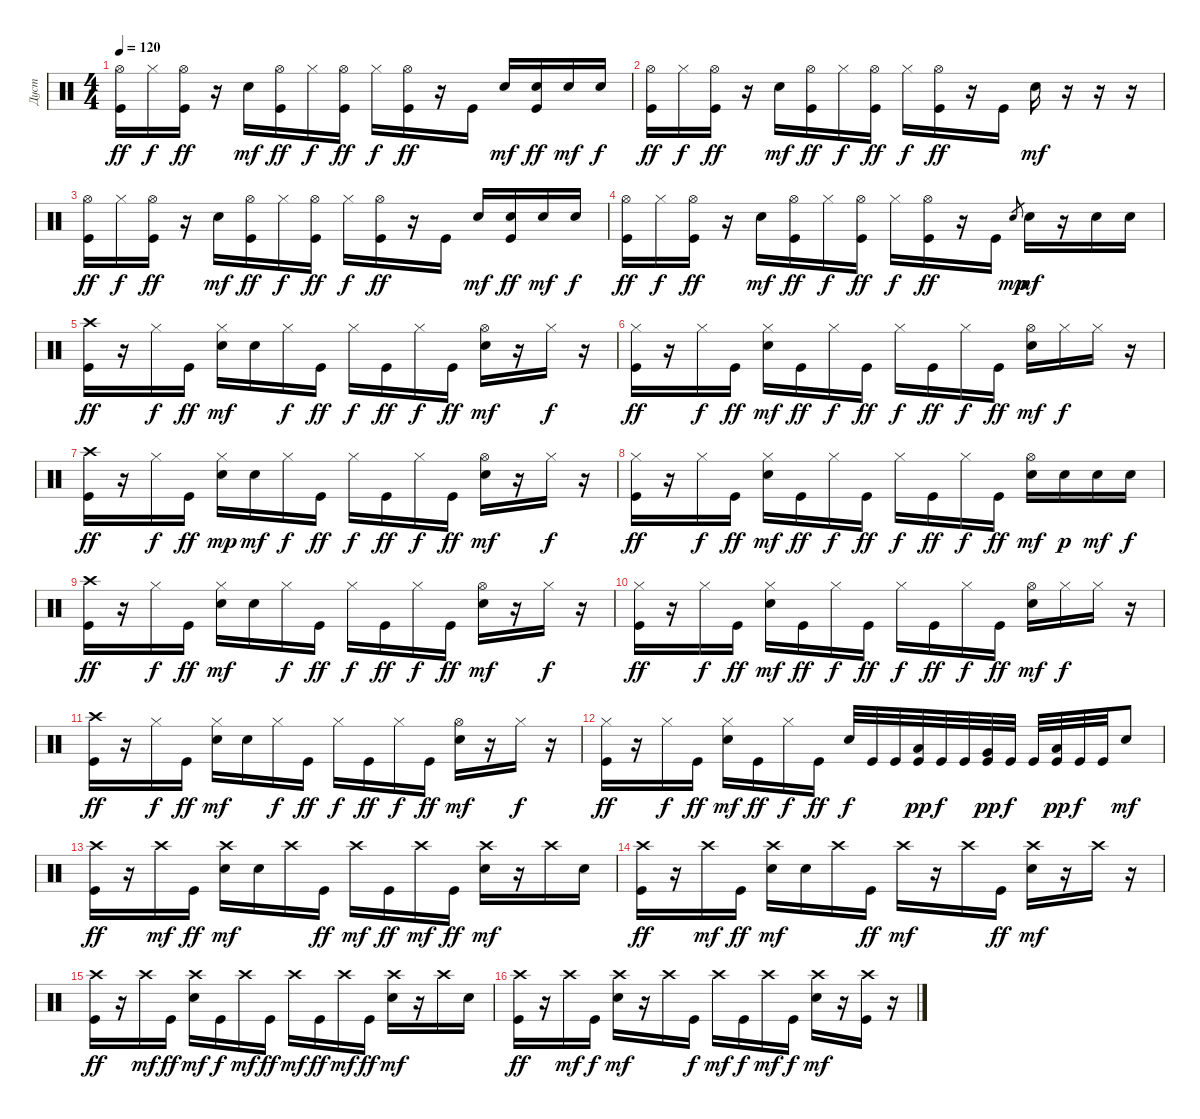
\track ("Дуст" "Дуст") {instrument percussion}
\staff {score}
\articulation defaults
\ts (4 4)
\tempo 120
\clef neutral
\ks c
("Hi-Hat (open)" "Kick (hit)").16{dy ff} "Hi-Hat (closed)".16{dy f} ("Hi-Hat (open)" "Kick (hit)").16{dy ff} r.16 "Metronome (bell)".16{dy mf} ("Hi-Hat (open)" "Kick (hit)").16{dy ff} "Hi-Hat (closed)".16{dy f} ("Hi-Hat (open)" "Kick (hit)").16{dy ff} "Hi-Hat (closed)".16{dy f} ("Hi-Hat (open)" "Kick (hit)").16{dy ff} r.16 "Kick (hit)".16 "Metronome (bell)".16{dy mf} ("Metronome (bell)" "Kick (hit)").16{dy ff} "Metronome (bell)".16{dy mf} "Metronome (bell)".16{dy f} |
("Hi-Hat (open)" "Kick (hit)").16{dy ff} "Hi-Hat (closed)".16{dy f} ("Hi-Hat (open)" "Kick (hit)").16{dy ff} r.16 "Metronome (bell)".16{dy mf} ("Hi-Hat (open)" "Kick (hit)").16{dy ff} "Hi-Hat (closed)".16{dy f} ("Hi-Hat (open)" "Kick (hit)").16{dy ff} "Hi-Hat (closed)".16{dy f} ("Hi-Hat (open)" "Kick (hit)").16{dy ff} r.16 "Kick (hit)".16 "Metronome (bell)".16{dy mf} r.16 r.16 r.16 |
("Hi-Hat (open)" "Kick (hit)").16{dy ff} "Hi-Hat (closed)".16{dy f} ("Hi-Hat (open)" "Kick (hit)").16{dy ff} r.16 "Metronome (bell)".16{dy mf} ("Hi-Hat (open)" "Kick (hit)").16{dy ff} "Hi-Hat (closed)".16{dy f} ("Hi-Hat (open)" "Kick (hit)").16{dy ff} "Hi-Hat (closed)".16{dy f} ("Hi-Hat (open)" "Kick (hit)").16{dy ff} r.16 "Kick (hit)".16 "Metronome (bell)".16{dy mf} ("Metronome (bell)" "Kick (hit)").16{dy ff} "Metronome (bell)".16{dy mf} "Metronome (bell)".16{dy f} |
("Hi-Hat (open)" "Kick (hit)").16{dy ff} "Hi-Hat (closed)".16{dy f} ("Hi-Hat (open)" "Kick (hit)").16{dy ff} r.16 "Metronome (bell)".16{dy mf} ("Hi-Hat (open)" "Kick (hit)").16{dy ff} "Hi-Hat (closed)".16{dy f} ("Hi-Hat (open)" "Kick (hit)").16{dy ff} "Hi-Hat (closed)".16{dy f} ("Hi-Hat (open)" "Kick (hit)").16{dy ff} r.16 "Kick (hit)".16 "Metronome (bell)".8{gr dy mp} "Metronome (bell)".16{dy mf} r.16 "Metronome (bell)".16 "Metronome (bell)".16 |
("Crash high (hit)" "Kick (hit)").16{dy ff} r.16 "Hi-Hat (closed)".16{dy f} "Kick (hit)".16{dy ff} ("Hi-Hat (closed)" "Metronome (bell)").16{dy mf} "Metronome (bell)".16 "Hi-Hat (closed)".16{dy f} "Kick (hit)".16{dy ff} "Hi-Hat (closed)".16{dy f} "Kick (hit)".16{dy ff} "Hi-Hat (closed)".16{dy f} "Kick (hit)".16{dy ff} ("Hi-Hat (open)" "Metronome (bell)").16{dy mf} r.16 "Hi-Hat (closed)".16{dy f} r.16 |
("Hi-Hat (closed)" "Kick (hit)").16{dy ff} r.16 "Hi-Hat (closed)".16{dy f} "Kick (hit)".16{dy ff} ("Hi-Hat (closed)" "Metronome (bell)").16{dy mf} "Kick (hit)".16{dy ff} "Hi-Hat (closed)".16{dy f} "Kick (hit)".16{dy ff} "Hi-Hat (closed)".16{dy f} "Kick (hit)".16{dy ff} "Hi-Hat (closed)".16{dy f} "Kick (hit)".16{dy ff} ("Hi-Hat (open)" "Metronome (bell)").16{dy mf} "Hi-Hat (closed)".16{dy f} "Hi-Hat (closed)".16 r.16 |
("Crash high (hit)" "Kick (hit)").16{dy ff} r.16 "Hi-Hat (closed)".16{dy f} "Kick (hit)".16{dy ff} ("Hi-Hat (closed)" "Metronome (bell)").16{dy mp} "Metronome (bell)".16{dy mf} "Hi-Hat (closed)".16{dy f} "Kick (hit)".16{dy ff} "Hi-Hat (closed)".16{dy f} "Kick (hit)".16{dy ff} "Hi-Hat (closed)".16{dy f} "Kick (hit)".16{dy ff} ("Hi-Hat (open)" "Metronome (bell)").16{dy mf} r.16 "Hi-Hat (closed)".16{dy f} r.16 |
("Hi-Hat (closed)" "Kick (hit)").16{dy ff} r.16 "Hi-Hat (closed)".16{dy f} "Kick (hit)".16{dy ff} ("Hi-Hat (closed)" "Metronome (bell)").16{dy mf} "Kick (hit)".16{dy ff} "Hi-Hat (closed)".16{dy f} "Kick (hit)".16{dy ff} "Hi-Hat (closed)".16{dy f} "Kick (hit)".16{dy ff} "Hi-Hat (closed)".16{dy f} "Kick (hit)".16{dy ff} ("Hi-Hat (open)" "Metronome (bell)").16{dy mf} "Metronome (bell)".16{dy p} "Metronome (bell)".16{dy mf} "Metronome (bell)".16{dy f} |
("Crash high (hit)" "Kick (hit)").16{dy ff} r.16 "Hi-Hat (closed)".16{dy f} "Kick (hit)".16{dy ff} ("Hi-Hat (closed)" "Metronome (bell)").16{dy mf} "Metronome (bell)".16 "Hi-Hat (closed)".16{dy f} "Kick (hit)".16{dy ff} "Hi-Hat (closed)".16{dy f} "Kick (hit)".16{dy ff} "Hi-Hat (closed)".16{dy f} "Kick (hit)".16{dy ff} ("Hi-Hat (open)" "Metronome (bell)").16{dy mf} r.16 "Hi-Hat (closed)".16{dy f} r.16 |
("Hi-Hat (closed)" "Kick (hit)").16{dy ff} r.16 "Hi-Hat (closed)".16{dy f} "Kick (hit)".16{dy ff} ("Hi-Hat (closed)" "Metronome (bell)").16{dy mf} "Kick (hit)".16{dy ff} "Hi-Hat (closed)".16{dy f} "Kick (hit)".16{dy ff} "Hi-Hat (closed)".16{dy f} "Kick (hit)".16{dy ff} "Hi-Hat (closed)".16{dy f} "Kick (hit)".16{dy ff} ("Hi-Hat (open)" "Metronome (bell)").16{dy mf} "Hi-Hat (closed)".16{dy f} "Hi-Hat (closed)".16 r.16 |
("Crash high (hit)" "Kick (hit)").16{dy ff} r.16 "Hi-Hat (closed)".16{dy f} "Kick (hit)".16{dy ff} ("Hi-Hat (closed)" "Metronome (bell)").16{dy mf} "Metronome (bell)".16 "Hi-Hat (closed)".16{dy f} "Kick (hit)".16{dy ff} "Hi-Hat (closed)".16{dy f} "Kick (hit)".16{dy ff} "Hi-Hat (closed)".16{dy f} "Kick (hit)".16{dy ff} ("Hi-Hat (open)" "Metronome (bell)").16{dy mf} r.16 "Hi-Hat (closed)".16{dy f} r.16 |
("Hi-Hat (closed)" "Kick (hit)").16{dy ff} r.16 "Hi-Hat (closed)".16{dy f} "Kick (hit)".16{dy ff} ("Hi-Hat (closed)" "Metronome (bell)").16{dy mf} "Kick (hit)".16{dy ff} "Hi-Hat (closed)".16{dy f} "Kick (hit)".16{dy ff} "Metronome (bell)".32{dy f} "Kick (hit)".32 "Kick (hit)".32 ("Low Tom (hit)" "Kick (hit)").32{dy pp} "Kick (hit)".32{dy f} "Kick (hit)".32 ("Very Low Tom (hit)" "Kick (hit)").32{dy pp} "Kick (hit)".32{dy f} "Kick (hit)".32 ("Low Floor Tom (hit)" "Kick (hit)").32{dy pp} "Kick (hit)".32{dy f} "Kick (hit)".32 "Metronome (bell)".8{dy mf} |
("Crash high (hit)" "Kick (hit)").16{dy ff} r.16 "Crash high (hit)".16{dy mf} "Kick (hit)".16{dy ff} ("Crash high (hit)" "Metronome (bell)").16{dy mf} "Metronome (bell)".16 "Crash high (hit)".16 "Kick (hit)".16{dy ff} "Crash high (hit)".16{dy mf} "Kick (hit)".16{dy ff} "Crash high (hit)".16{dy mf} "Kick (hit)".16{dy ff} ("Crash high (hit)" "Metronome (bell)").16{dy mf} r.16 "Crash high (hit)".16 "Metronome (bell)".16 |
("Crash high (hit)" "Kick (hit)").16{dy ff} r.16 "Crash high (hit)".16{dy mf} "Kick (hit)".16{dy ff} ("Crash high (hit)" "Metronome (bell)").16{dy mf} "Metronome (bell)".16 "Crash high (hit)".16 "Kick (hit)".16{dy ff} "Crash high (hit)".16{dy mf} r.16 "Crash high (hit)".16 "Kick (hit)".16{dy ff} ("Crash high (hit)" "Metronome (bell)").16{dy mf} r.16 "Crash high (hit)".16 r.16 |
("Crash high (hit)" "Kick (hit)").16{dy ff} r.16 "Crash high (hit)".16{dy mf} "Kick (hit)".16{dy ff} ("Crash high (hit)" "Metronome (bell)").16{dy mf} "Kick (hit)".16{dy f} "Crash high (hit)".16{dy mf} "Kick (hit)".16{dy ff} "Crash high (hit)".16{dy mf} "Kick (hit)".16{dy ff} "Crash high (hit)".16{dy mf} "Kick (hit)".16{dy ff} ("Crash high (hit)" "Metronome (bell)").16{dy mf} r.16 "Crash high (hit)".16 "Metronome (bell)".16 |
("Crash high (hit)" "Kick (hit)").16{dy ff} r.16 "Crash high (hit)".16{dy mf} "Kick (hit)".16{dy f} ("Crash high (hit)" "Metronome (bell)").16{dy mf} r.16 "Crash high (hit)".16 "Kick (hit)".16{dy f} "Crash high (hit)".16{dy mf} "Kick (hit)".16{dy f} "Crash high (hit)".16{dy mf} "Kick (hit)".16{dy f} ("Crash high (hit)" "Metronome (bell)").16{dy mf} r.16 ("Crash high (hit)" "Kick (hit)").16 r.16
